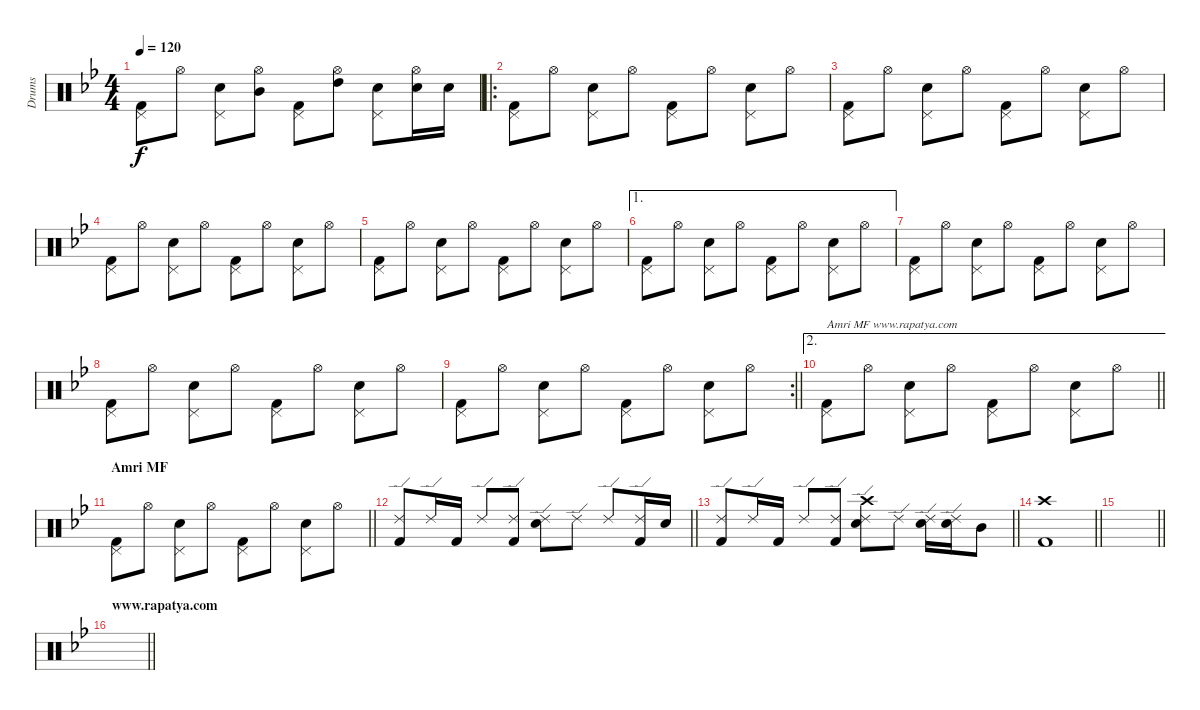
\track ("Drums" "Drums") {instrument percussion}
\staff {score}
\articulation defaults
\ts (4 4)
\tempo 120
\clef neutral
\ks bb
("Pedal Hi-Hat (hit)" "Kick (hit) 2").8{dy f} "Hi-Hat (open)".8 ("Electric Snare (hit)" "Pedal Hi-Hat (hit)").8 ("Hi-Hat (open)" "Mid Tom (hit)").8 ("Pedal Hi-Hat (hit)" "Kick (hit) 2").8 ("Hi-Hat (open)" "High Tom (hit)").8 ("Electric Snare (hit)" "Pedal Hi-Hat (hit)").8 ("Hi-Hat (open)" "Electric Snare (hit)").16 "Electric Snare (hit)".16 |
\ro
("Pedal Hi-Hat (hit)" "Kick (hit) 2").8 "Hi-Hat (open)".8 ("Electric Snare (hit)" "Pedal Hi-Hat (hit)").8 "Hi-Hat (open)".8 ("Pedal Hi-Hat (hit)" "Kick (hit) 2").8 "Hi-Hat (open)".8 ("Electric Snare (hit)" "Pedal Hi-Hat (hit)").8 "Hi-Hat (open)".8 |
("Pedal Hi-Hat (hit)" "Kick (hit) 2").8 "Hi-Hat (open)".8 ("Electric Snare (hit)" "Pedal Hi-Hat (hit)").8 "Hi-Hat (open)".8 ("Pedal Hi-Hat (hit)" "Kick (hit) 2").8 "Hi-Hat (open)".8 ("Electric Snare (hit)" "Pedal Hi-Hat (hit)").8 "Hi-Hat (open)".8 |
("Pedal Hi-Hat (hit)" "Kick (hit) 2").8 "Hi-Hat (open)".8 ("Electric Snare (hit)" "Pedal Hi-Hat (hit)").8 "Hi-Hat (open)".8 ("Pedal Hi-Hat (hit)" "Kick (hit) 2").8 "Hi-Hat (open)".8 ("Electric Snare (hit)" "Pedal Hi-Hat (hit)").8 "Hi-Hat (open)".8 |
("Pedal Hi-Hat (hit)" "Kick (hit) 2").8 "Hi-Hat (open)".8 ("Electric Snare (hit)" "Pedal Hi-Hat (hit)").8 "Hi-Hat (open)".8 ("Pedal Hi-Hat (hit)" "Kick (hit) 2").8 "Hi-Hat (open)".8 ("Electric Snare (hit)" "Pedal Hi-Hat (hit)").8 "Hi-Hat (open)".8 |
\ae 1
("Pedal Hi-Hat (hit)" "Kick (hit) 2").8 "Hi-Hat (open)".8 ("Electric Snare (hit)" "Pedal Hi-Hat (hit)").8 "Hi-Hat (open)".8 ("Pedal Hi-Hat (hit)" "Kick (hit) 2").8 "Hi-Hat (open)".8 ("Electric Snare (hit)" "Pedal Hi-Hat (hit)").8 "Hi-Hat (open)".8 |
("Pedal Hi-Hat (hit)" "Kick (hit) 2").8 "Hi-Hat (open)".8 ("Electric Snare (hit)" "Pedal Hi-Hat (hit)").8 "Hi-Hat (open)".8 ("Pedal Hi-Hat (hit)" "Kick (hit) 2").8 "Hi-Hat (open)".8 ("Electric Snare (hit)" "Pedal Hi-Hat (hit)").8 "Hi-Hat (open)".8 |
("Pedal Hi-Hat (hit)" "Kick (hit) 2").8 "Hi-Hat (open)".8 ("Electric Snare (hit)" "Pedal Hi-Hat (hit)").8 "Hi-Hat (open)".8 ("Pedal Hi-Hat (hit)" "Kick (hit) 2").8 "Hi-Hat (open)".8 ("Electric Snare (hit)" "Pedal Hi-Hat (hit)").8 "Hi-Hat (open)".8 |
\rc 2
\barLineRight lightlight
("Pedal Hi-Hat (hit)" "Kick (hit) 2").8 "Hi-Hat (open)".8 ("Electric Snare (hit)" "Pedal Hi-Hat (hit)").8 "Hi-Hat (open)".8 ("Pedal Hi-Hat (hit)" "Kick (hit) 2").8 "Hi-Hat (open)".8 ("Electric Snare (hit)" "Pedal Hi-Hat (hit)").8 "Hi-Hat (open)".8 |
\ae 2
\barLineRight lightlight
("Pedal Hi-Hat (hit)" "Kick (hit) 2").8{txt "Amri MF www.rapatya.com"} "Hi-Hat (open)".8 ("Electric Snare (hit)" "Pedal Hi-Hat (hit)").8 "Hi-Hat (open)".8 ("Pedal Hi-Hat (hit)" "Kick (hit) 2").8 "Hi-Hat (open)".8 ("Electric Snare (hit)" "Pedal Hi-Hat (hit)").8 "Hi-Hat (open)".8 |
\section ("" "Amri MF")
\barLineRight lightlight
("Pedal Hi-Hat (hit)" "Kick (hit) 2").8 "Hi-Hat (open)".8 ("Electric Snare (hit)" "Pedal Hi-Hat (hit)").8 "Hi-Hat (open)".8 ("Pedal Hi-Hat (hit)" "Kick (hit) 2").8 "Hi-Hat (open)".8 ("Electric Snare (hit)" "Pedal Hi-Hat (hit)").8 "Hi-Hat (open)".8 |
\barLineRight lightlight
("Ride (edge) 2" "Kick (hit) 2").8 "Ride (edge) 2".16 "Kick (hit) 2".16 "Ride (edge) 2".8 ("Ride (edge) 2" "Kick (hit) 2").8 ("Ride (edge) 2" "Electric Snare (hit)").8 "Ride (edge) 2".8 "Ride (edge) 2".8 ("Ride (edge) 2" "Kick (hit) 2").16 "Electric Snare (hit)".16 |
\barLineRight lightlight
("Ride (edge) 2" "Kick (hit) 2").8 "Ride (edge) 2".16 "Kick (hit) 2".16 "Ride (edge) 2".8 ("Ride (edge) 2" "Kick (hit) 2").8 ("Ride (edge) 2" "Electric Snare (hit)" "Crash high (hit)").8 "Ride (edge) 2".8 ("Ride (edge) 2" "Electric Snare (hit)").16 ("Ride (edge) 2" "Electric Snare (hit)").16 "Mid Tom (hit)".8 |
\barLineRight lightlight
("Kick (hit) 2" "Crash high (hit)").1 |
\barLineRight lightlight
|
\section ("" "www.rapatya.com")
\barLineRight lightlight
